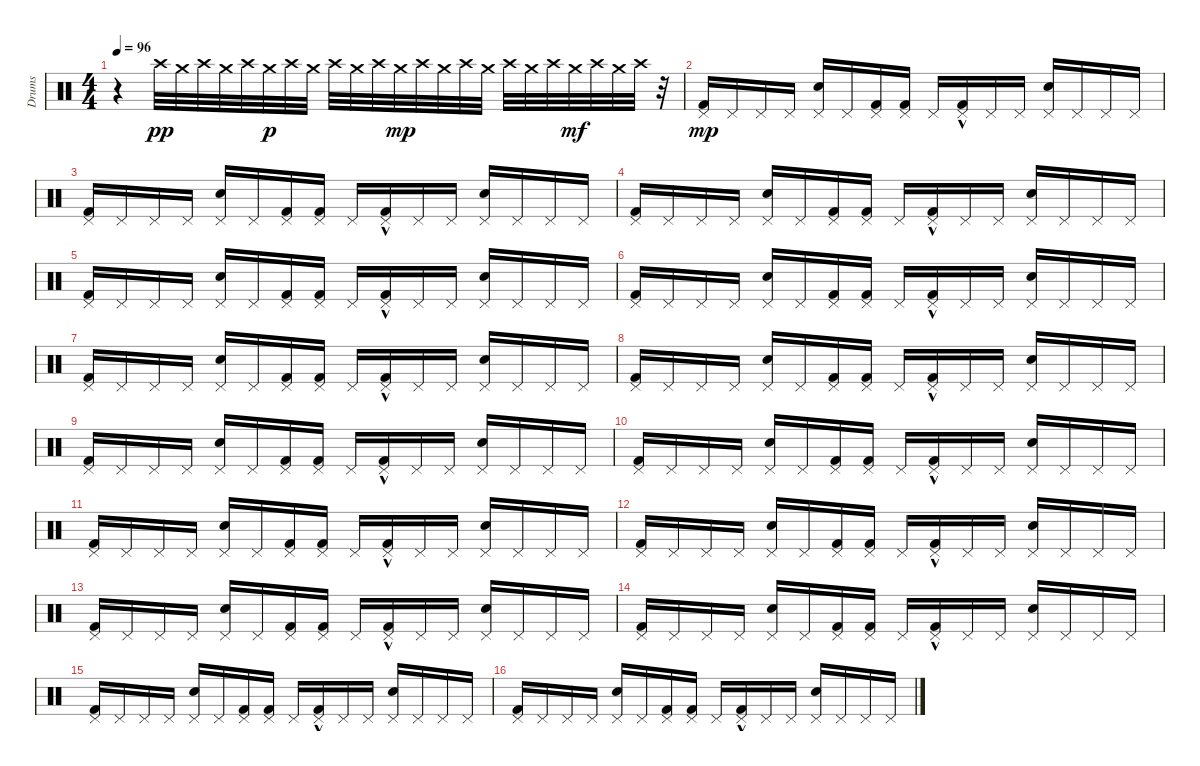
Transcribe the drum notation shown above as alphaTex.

\track ("Drums" "Drums") {instrument percussion}
\staff {score}
\articulation defaults
\ts (4 4)
\tempo 96
\clef neutral
\ks c
r.4{dy pp} "Crash high (hit)".32 "Crash medium (hit)".32 "Crash high (hit)".32 "Crash medium (hit)".32 "Crash high (hit)".32 "Crash medium (hit)".32{dy p} "Crash high (hit)".32 "Crash medium (hit)".32 "Crash high (hit)".32 "Crash medium (hit)".32 "Crash high (hit)".32 "Crash medium (hit)".32{dy mp} "Crash high (hit)".32 "Crash medium (hit)".32 "Crash high (hit)".32 "Crash medium (hit)".32 "Crash high (hit)".32 "Crash medium (hit)".32 "Crash high (hit)".32 "Crash medium (hit)".32{dy mf} "Crash high (hit)".32 "Crash medium (hit)".32 "Crash high (hit)".32 r.32 |
("Pedal Hi-Hat (hit)" "Kick (hit) 2").16{dy mp} "Pedal Hi-Hat (hit)".16 "Pedal Hi-Hat (hit)".16 "Pedal Hi-Hat (hit)".16 ("Electric Snare (hit)" "Pedal Hi-Hat (hit)").16 "Pedal Hi-Hat (hit)".16 ("Pedal Hi-Hat (hit)" "Kick (hit) 2").16 ("Pedal Hi-Hat (hit)" "Kick (hit) 2").16 "Pedal Hi-Hat (hit)".16 ("Pedal Hi-Hat (hit)" "Kick (hit) 2"{hac}).16 "Pedal Hi-Hat (hit)".16 "Pedal Hi-Hat (hit)".16 ("Electric Snare (hit)" "Pedal Hi-Hat (hit)").16 "Pedal Hi-Hat (hit)".16 "Pedal Hi-Hat (hit)".16 "Pedal Hi-Hat (hit)".16 |
("Pedal Hi-Hat (hit)" "Kick (hit) 2").16 "Pedal Hi-Hat (hit)".16 "Pedal Hi-Hat (hit)".16 "Pedal Hi-Hat (hit)".16 ("Electric Snare (hit)" "Pedal Hi-Hat (hit)").16 "Pedal Hi-Hat (hit)".16 ("Pedal Hi-Hat (hit)" "Kick (hit) 2").16 ("Pedal Hi-Hat (hit)" "Kick (hit) 2").16 "Pedal Hi-Hat (hit)".16 ("Pedal Hi-Hat (hit)" "Kick (hit) 2"{hac}).16 "Pedal Hi-Hat (hit)".16 "Pedal Hi-Hat (hit)".16 ("Electric Snare (hit)" "Pedal Hi-Hat (hit)").16 "Pedal Hi-Hat (hit)".16 "Pedal Hi-Hat (hit)".16 "Pedal Hi-Hat (hit)".16 |
("Pedal Hi-Hat (hit)" "Kick (hit) 2").16 "Pedal Hi-Hat (hit)".16 "Pedal Hi-Hat (hit)".16 "Pedal Hi-Hat (hit)".16 ("Electric Snare (hit)" "Pedal Hi-Hat (hit)").16 "Pedal Hi-Hat (hit)".16 ("Pedal Hi-Hat (hit)" "Kick (hit) 2").16 ("Pedal Hi-Hat (hit)" "Kick (hit) 2").16 "Pedal Hi-Hat (hit)".16 ("Pedal Hi-Hat (hit)" "Kick (hit) 2"{hac}).16 "Pedal Hi-Hat (hit)".16 "Pedal Hi-Hat (hit)".16 ("Electric Snare (hit)" "Pedal Hi-Hat (hit)").16 "Pedal Hi-Hat (hit)".16 "Pedal Hi-Hat (hit)".16 "Pedal Hi-Hat (hit)".16 |
("Pedal Hi-Hat (hit)" "Kick (hit) 2").16 "Pedal Hi-Hat (hit)".16 "Pedal Hi-Hat (hit)".16 "Pedal Hi-Hat (hit)".16 ("Electric Snare (hit)" "Pedal Hi-Hat (hit)").16 "Pedal Hi-Hat (hit)".16 ("Pedal Hi-Hat (hit)" "Kick (hit) 2").16 ("Pedal Hi-Hat (hit)" "Kick (hit) 2").16 "Pedal Hi-Hat (hit)".16 ("Pedal Hi-Hat (hit)" "Kick (hit) 2"{hac}).16 "Pedal Hi-Hat (hit)".16 "Pedal Hi-Hat (hit)".16 ("Electric Snare (hit)" "Pedal Hi-Hat (hit)").16 "Pedal Hi-Hat (hit)".16 "Pedal Hi-Hat (hit)".16 "Pedal Hi-Hat (hit)".16 |
("Pedal Hi-Hat (hit)" "Kick (hit) 2").16 "Pedal Hi-Hat (hit)".16 "Pedal Hi-Hat (hit)".16 "Pedal Hi-Hat (hit)".16 ("Electric Snare (hit)" "Pedal Hi-Hat (hit)").16 "Pedal Hi-Hat (hit)".16 ("Pedal Hi-Hat (hit)" "Kick (hit) 2").16 ("Pedal Hi-Hat (hit)" "Kick (hit) 2").16 "Pedal Hi-Hat (hit)".16 ("Pedal Hi-Hat (hit)" "Kick (hit) 2"{hac}).16 "Pedal Hi-Hat (hit)".16 "Pedal Hi-Hat (hit)".16 ("Electric Snare (hit)" "Pedal Hi-Hat (hit)").16 "Pedal Hi-Hat (hit)".16 "Pedal Hi-Hat (hit)".16 "Pedal Hi-Hat (hit)".16 |
("Pedal Hi-Hat (hit)" "Kick (hit) 2").16 "Pedal Hi-Hat (hit)".16 "Pedal Hi-Hat (hit)".16 "Pedal Hi-Hat (hit)".16 ("Electric Snare (hit)" "Pedal Hi-Hat (hit)").16 "Pedal Hi-Hat (hit)".16 ("Pedal Hi-Hat (hit)" "Kick (hit) 2").16 ("Pedal Hi-Hat (hit)" "Kick (hit) 2").16 "Pedal Hi-Hat (hit)".16 ("Pedal Hi-Hat (hit)" "Kick (hit) 2"{hac}).16 "Pedal Hi-Hat (hit)".16 "Pedal Hi-Hat (hit)".16 ("Electric Snare (hit)" "Pedal Hi-Hat (hit)").16 "Pedal Hi-Hat (hit)".16 "Pedal Hi-Hat (hit)".16 "Pedal Hi-Hat (hit)".16 |
("Pedal Hi-Hat (hit)" "Kick (hit) 2").16 "Pedal Hi-Hat (hit)".16 "Pedal Hi-Hat (hit)".16 "Pedal Hi-Hat (hit)".16 ("Electric Snare (hit)" "Pedal Hi-Hat (hit)").16 "Pedal Hi-Hat (hit)".16 ("Pedal Hi-Hat (hit)" "Kick (hit) 2").16 ("Pedal Hi-Hat (hit)" "Kick (hit) 2").16 "Pedal Hi-Hat (hit)".16 ("Pedal Hi-Hat (hit)" "Kick (hit) 2"{hac}).16 "Pedal Hi-Hat (hit)".16 "Pedal Hi-Hat (hit)".16 ("Electric Snare (hit)" "Pedal Hi-Hat (hit)").16 "Pedal Hi-Hat (hit)".16 "Pedal Hi-Hat (hit)".16 "Pedal Hi-Hat (hit)".16 |
("Pedal Hi-Hat (hit)" "Kick (hit) 2").16 "Pedal Hi-Hat (hit)".16 "Pedal Hi-Hat (hit)".16 "Pedal Hi-Hat (hit)".16 ("Electric Snare (hit)" "Pedal Hi-Hat (hit)").16 "Pedal Hi-Hat (hit)".16 ("Pedal Hi-Hat (hit)" "Kick (hit) 2").16 ("Pedal Hi-Hat (hit)" "Kick (hit) 2").16 "Pedal Hi-Hat (hit)".16 ("Pedal Hi-Hat (hit)" "Kick (hit) 2"{hac}).16 "Pedal Hi-Hat (hit)".16 "Pedal Hi-Hat (hit)".16 ("Electric Snare (hit)" "Pedal Hi-Hat (hit)").16 "Pedal Hi-Hat (hit)".16 "Pedal Hi-Hat (hit)".16 "Pedal Hi-Hat (hit)".16 |
("Pedal Hi-Hat (hit)" "Kick (hit) 2").16 "Pedal Hi-Hat (hit)".16 "Pedal Hi-Hat (hit)".16 "Pedal Hi-Hat (hit)".16 ("Electric Snare (hit)" "Pedal Hi-Hat (hit)").16 "Pedal Hi-Hat (hit)".16 ("Pedal Hi-Hat (hit)" "Kick (hit) 2").16 ("Pedal Hi-Hat (hit)" "Kick (hit) 2").16 "Pedal Hi-Hat (hit)".16 ("Pedal Hi-Hat (hit)" "Kick (hit) 2"{hac}).16 "Pedal Hi-Hat (hit)".16 "Pedal Hi-Hat (hit)".16 ("Electric Snare (hit)" "Pedal Hi-Hat (hit)").16 "Pedal Hi-Hat (hit)".16 "Pedal Hi-Hat (hit)".16 "Pedal Hi-Hat (hit)".16 |
("Pedal Hi-Hat (hit)" "Kick (hit) 2").16 "Pedal Hi-Hat (hit)".16 "Pedal Hi-Hat (hit)".16 "Pedal Hi-Hat (hit)".16 ("Electric Snare (hit)" "Pedal Hi-Hat (hit)").16 "Pedal Hi-Hat (hit)".16 ("Pedal Hi-Hat (hit)" "Kick (hit) 2").16 ("Pedal Hi-Hat (hit)" "Kick (hit) 2").16 "Pedal Hi-Hat (hit)".16 ("Pedal Hi-Hat (hit)" "Kick (hit) 2"{hac}).16 "Pedal Hi-Hat (hit)".16 "Pedal Hi-Hat (hit)".16 ("Electric Snare (hit)" "Pedal Hi-Hat (hit)").16 "Pedal Hi-Hat (hit)".16 "Pedal Hi-Hat (hit)".16 "Pedal Hi-Hat (hit)".16 |
("Pedal Hi-Hat (hit)" "Kick (hit) 2").16 "Pedal Hi-Hat (hit)".16 "Pedal Hi-Hat (hit)".16 "Pedal Hi-Hat (hit)".16 ("Electric Snare (hit)" "Pedal Hi-Hat (hit)").16 "Pedal Hi-Hat (hit)".16 ("Pedal Hi-Hat (hit)" "Kick (hit) 2").16 ("Pedal Hi-Hat (hit)" "Kick (hit) 2").16 "Pedal Hi-Hat (hit)".16 ("Pedal Hi-Hat (hit)" "Kick (hit) 2"{hac}).16 "Pedal Hi-Hat (hit)".16 "Pedal Hi-Hat (hit)".16 ("Electric Snare (hit)" "Pedal Hi-Hat (hit)").16 "Pedal Hi-Hat (hit)".16 "Pedal Hi-Hat (hit)".16 "Pedal Hi-Hat (hit)".16 |
("Pedal Hi-Hat (hit)" "Kick (hit) 2").16 "Pedal Hi-Hat (hit)".16 "Pedal Hi-Hat (hit)".16 "Pedal Hi-Hat (hit)".16 ("Electric Snare (hit)" "Pedal Hi-Hat (hit)").16 "Pedal Hi-Hat (hit)".16 ("Pedal Hi-Hat (hit)" "Kick (hit) 2").16 ("Pedal Hi-Hat (hit)" "Kick (hit) 2").16 "Pedal Hi-Hat (hit)".16 ("Pedal Hi-Hat (hit)" "Kick (hit) 2"{hac}).16 "Pedal Hi-Hat (hit)".16 "Pedal Hi-Hat (hit)".16 ("Electric Snare (hit)" "Pedal Hi-Hat (hit)").16 "Pedal Hi-Hat (hit)".16 "Pedal Hi-Hat (hit)".16 "Pedal Hi-Hat (hit)".16 |
("Pedal Hi-Hat (hit)" "Kick (hit) 2").16 "Pedal Hi-Hat (hit)".16 "Pedal Hi-Hat (hit)".16 "Pedal Hi-Hat (hit)".16 ("Electric Snare (hit)" "Pedal Hi-Hat (hit)").16 "Pedal Hi-Hat (hit)".16 ("Pedal Hi-Hat (hit)" "Kick (hit) 2").16 ("Pedal Hi-Hat (hit)" "Kick (hit) 2").16 "Pedal Hi-Hat (hit)".16 ("Pedal Hi-Hat (hit)" "Kick (hit) 2"{hac}).16 "Pedal Hi-Hat (hit)".16 "Pedal Hi-Hat (hit)".16 ("Electric Snare (hit)" "Pedal Hi-Hat (hit)").16 "Pedal Hi-Hat (hit)".16 "Pedal Hi-Hat (hit)".16 "Pedal Hi-Hat (hit)".16 |
("Pedal Hi-Hat (hit)" "Kick (hit) 2").16 "Pedal Hi-Hat (hit)".16 "Pedal Hi-Hat (hit)".16 "Pedal Hi-Hat (hit)".16 ("Electric Snare (hit)" "Pedal Hi-Hat (hit)").16 "Pedal Hi-Hat (hit)".16 ("Pedal Hi-Hat (hit)" "Kick (hit) 2").16 ("Pedal Hi-Hat (hit)" "Kick (hit) 2").16 "Pedal Hi-Hat (hit)".16 ("Pedal Hi-Hat (hit)" "Kick (hit) 2"{hac}).16 "Pedal Hi-Hat (hit)".16 "Pedal Hi-Hat (hit)".16 ("Electric Snare (hit)" "Pedal Hi-Hat (hit)").16 "Pedal Hi-Hat (hit)".16 "Pedal Hi-Hat (hit)".16 "Pedal Hi-Hat (hit)".16 |
("Pedal Hi-Hat (hit)" "Kick (hit) 2").16 "Pedal Hi-Hat (hit)".16 "Pedal Hi-Hat (hit)".16 "Pedal Hi-Hat (hit)".16 ("Electric Snare (hit)" "Pedal Hi-Hat (hit)").16 "Pedal Hi-Hat (hit)".16 ("Pedal Hi-Hat (hit)" "Kick (hit) 2").16 ("Pedal Hi-Hat (hit)" "Kick (hit) 2").16 "Pedal Hi-Hat (hit)".16 ("Pedal Hi-Hat (hit)" "Kick (hit) 2"{hac}).16 "Pedal Hi-Hat (hit)".16 "Pedal Hi-Hat (hit)".16 ("Electric Snare (hit)" "Pedal Hi-Hat (hit)").16 "Pedal Hi-Hat (hit)".16 "Pedal Hi-Hat (hit)".16 "Pedal Hi-Hat (hit)".16
